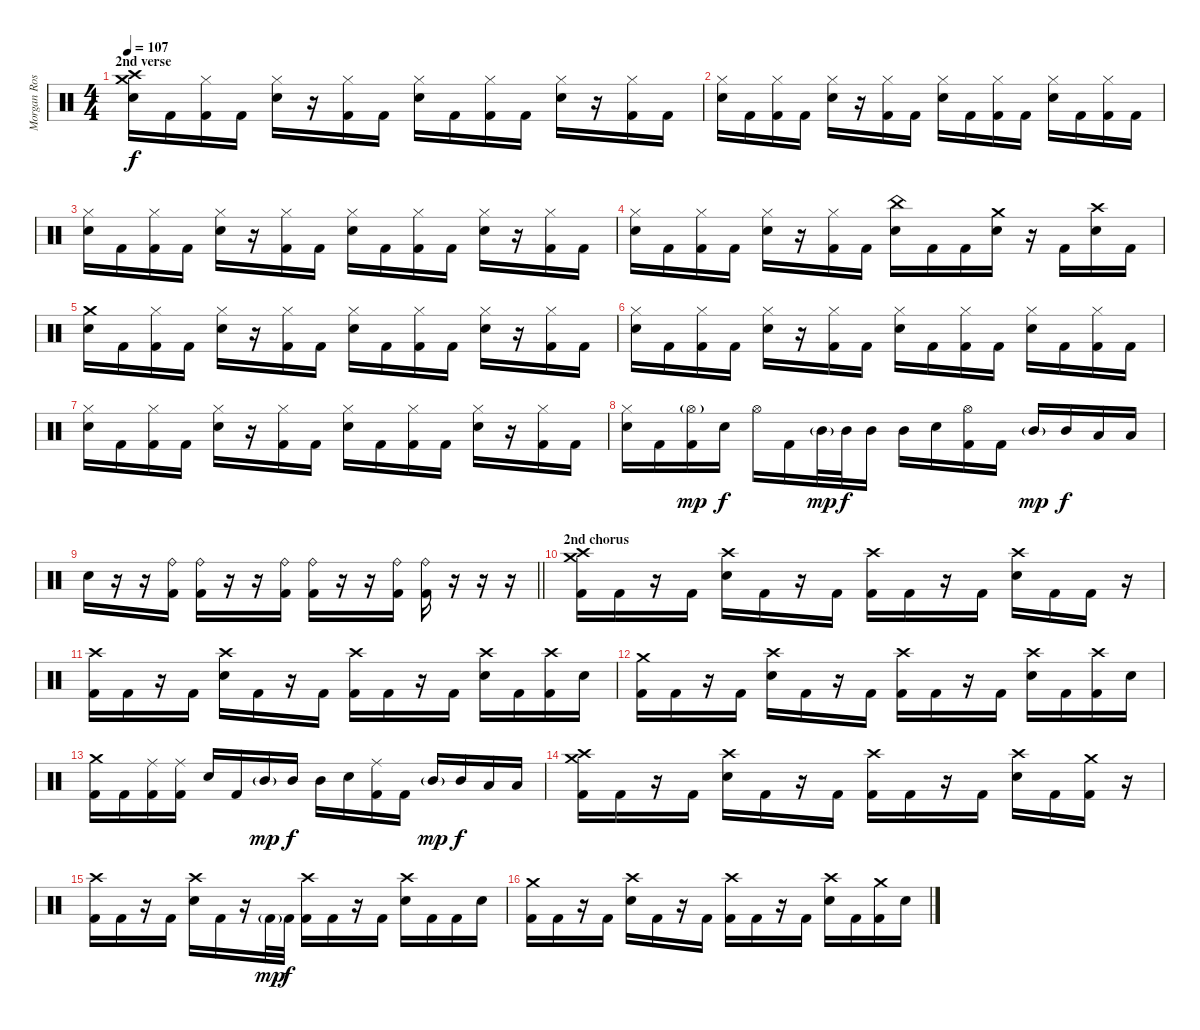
\track ("Morgan Rose" "Morgan Ros") {instrument percussion}
\staff {score}
\articulation defaults
\ts (4 4)
\section ("" "2nd verse")
\tempo 107
\clef neutral
\ks c
("Crash medium (hit)" "Crash high (hit)" "Snare (hit) 2").16{dy f} "Kick (hit) 2".16 ("Hi-Hat (closed)" "Kick (hit) 2").16 "Kick (hit) 2".16 ("Hi-Hat (closed)" "Snare (hit) 2").16 r.16 ("Hi-Hat (closed)" "Kick (hit) 2").16 "Kick (hit) 2".16 ("Hi-Hat (closed)" "Snare (hit) 2").16 "Kick (hit) 2".16 ("Hi-Hat (closed)" "Kick (hit) 2").16 "Kick (hit) 2".16 ("Hi-Hat (closed)" "Snare (hit) 2").16 r.16 ("Hi-Hat (closed)" "Kick (hit) 2").16 "Kick (hit) 2".16 |
("Hi-Hat (closed)" "Snare (hit) 2").16 "Kick (hit) 2".16 ("Hi-Hat (closed)" "Kick (hit) 2").16 "Kick (hit) 2".16 ("Hi-Hat (closed)" "Snare (hit) 2").16 r.16 ("Hi-Hat (closed)" "Kick (hit) 2").16 "Kick (hit) 2".16 ("Hi-Hat (closed)" "Snare (hit) 2").16 "Kick (hit) 2".16 ("Hi-Hat (closed)" "Kick (hit) 2").16 "Kick (hit) 2".16 ("Hi-Hat (closed)" "Snare (hit) 2").16 "Kick (hit) 2".16 ("Hi-Hat (closed)" "Kick (hit) 2").16 "Kick (hit) 2".16 |
("Hi-Hat (closed)" "Snare (hit) 2").16 "Kick (hit) 2".16 ("Hi-Hat (closed)" "Kick (hit) 2").16 "Kick (hit) 2".16 ("Hi-Hat (closed)" "Snare (hit) 2").16 r.16 ("Hi-Hat (closed)" "Kick (hit) 2").16 "Kick (hit) 2".16 ("Hi-Hat (closed)" "Snare (hit) 2").16 "Kick (hit) 2".16 ("Hi-Hat (closed)" "Kick (hit) 2").16 "Kick (hit) 2".16 ("Hi-Hat (closed)" "Snare (hit) 2").16 r.16 ("Hi-Hat (closed)" "Kick (hit) 2").16 "Kick (hit) 2".16 |
("Hi-Hat (closed)" "Snare (hit) 2").16 "Kick (hit) 2".16 ("Hi-Hat (closed)" "Kick (hit) 2").16 "Kick (hit) 2".16 ("Hi-Hat (closed)" "Snare (hit) 2").16 r.16 ("Hi-Hat (closed)" "Kick (hit) 2").16 "Kick (hit) 2".16 ("China (hit)" "Snare (hit) 2").16 "Kick (hit) 2".16 "Kick (hit) 2".16 ("Crash medium (hit)" "Snare (hit) 2").16 r.16 "Kick (hit) 2".16 ("Crash high (hit)" "Snare (hit) 2").16 "Kick (hit) 2".16 |
("Crash medium (hit)" "Snare (hit) 2").16 "Kick (hit) 2".16 ("Hi-Hat (closed)" "Kick (hit) 2").16 "Kick (hit) 2".16 ("Hi-Hat (closed)" "Snare (hit) 2").16 r.16 ("Hi-Hat (closed)" "Kick (hit) 2").16 "Kick (hit) 2".16 ("Hi-Hat (closed)" "Snare (hit) 2").16 "Kick (hit) 2".16 ("Hi-Hat (closed)" "Kick (hit) 2").16 "Kick (hit) 2".16 ("Hi-Hat (closed)" "Snare (hit) 2").16 r.16 ("Hi-Hat (closed)" "Kick (hit) 2").16 "Kick (hit) 2".16 |
("Hi-Hat (closed)" "Snare (hit) 2").16 "Kick (hit) 2".16 ("Hi-Hat (closed)" "Kick (hit) 2").16 "Kick (hit) 2".16 ("Hi-Hat (closed)" "Snare (hit) 2").16 r.16 ("Hi-Hat (closed)" "Kick (hit) 2").16 "Kick (hit) 2".16 ("Hi-Hat (closed)" "Snare (hit) 2").16 "Kick (hit) 2".16 ("Hi-Hat (closed)" "Kick (hit) 2").16 "Kick (hit) 2".16 ("Hi-Hat (closed)" "Snare (hit) 2").16 "Kick (hit) 2".16 ("Hi-Hat (closed)" "Kick (hit) 2").16 "Kick (hit) 2".16 |
("Hi-Hat (closed)" "Snare (hit) 2").16 "Kick (hit) 2".16 ("Hi-Hat (closed)" "Kick (hit) 2").16 "Kick (hit) 2".16 ("Hi-Hat (closed)" "Snare (hit) 2").16 r.16 ("Hi-Hat (closed)" "Kick (hit) 2").16 "Kick (hit) 2".16 ("Hi-Hat (closed)" "Snare (hit) 2").16 "Kick (hit) 2".16 ("Hi-Hat (closed)" "Kick (hit) 2").16 "Kick (hit) 2".16 ("Hi-Hat (closed)" "Snare (hit) 2").16 r.16 ("Hi-Hat (closed)" "Kick (hit) 2").16 "Kick (hit) 2".16 |
("Hi-Hat (closed)" "Snare (hit) 2").16 "Kick (hit) 2".16 ("Hi-Hat (open)"{g} "Kick (hit) 2").16{dy mp} "Snare (hit) 2".16{dy f} "Hi-Hat (open)".16 "Kick (hit) 2".16 "Mid Tom (hit)"{g}.32{dy mp} "Mid Tom (hit)".32{dy f} "Mid Tom (hit)".16 "Mid Tom (hit)".16 "Snare (hit) 2".16 ("Hi-Hat (open)" "Kick (hit) 2").16 "Kick (hit) 2".16 "Mid Tom (hit)"{g}.16{dy mp} "Mid Tom (hit)".16{dy f} "Low Tom (hit)".16 "Low Tom (hit)".16 |
\barLineRight lightlight "Snare (hit) 2".16
r.16 r.16 ("Ride (bell)" "Kick (hit) 2").16 ("Ride (bell)" "Kick (hit) 2").16 r.16 r.16 ("Ride (bell)" "Kick (hit) 2").16 ("Ride (bell)" "Kick (hit) 2").16 r.16 r.16 ("Ride (bell)" "Kick (hit) 2").16 ("Ride (bell)" "Kick (hit) 2").16 r.16 r.16 r.16 |
\section ("" "2nd chorus")
("Crash medium (hit)" "Crash high (hit)" "Kick (hit) 2").16 "Kick (hit) 2".16 r.16 "Kick (hit) 2".16 ("Crash high (hit)" "Snare (hit) 2").16 "Kick (hit) 2".16 r.16 "Kick (hit) 2".16 ("Crash high (hit)" "Kick (hit) 2").16 "Kick (hit) 2".16 r.16 "Kick (hit) 2".16 ("Crash high (hit)" "Snare (hit) 2").16 "Kick (hit) 2".16 "Kick (hit) 2".16 r.16 |
("Crash high (hit)" "Kick (hit) 2").16 "Kick (hit) 2".16 r.16 "Kick (hit) 2".16 ("Crash high (hit)" "Snare (hit) 2").16 "Kick (hit) 2".16 r.16 "Kick (hit) 2".16 ("Crash high (hit)" "Kick (hit) 2").16 "Kick (hit) 2".16 r.16 "Kick (hit) 2".16 ("Crash high (hit)" "Snare (hit) 2").16 "Kick (hit) 2".16 ("Crash high (hit)" "Kick (hit) 2").16 "Snare (hit) 2".16 |
("Crash medium (hit)" "Kick (hit) 2").16 "Kick (hit) 2".16 r.16 "Kick (hit) 2".16 ("Crash high (hit)" "Snare (hit) 2").16 "Kick (hit) 2".16 r.16 "Kick (hit) 2".16 ("Crash high (hit)" "Kick (hit) 2").16 "Kick (hit) 2".16 r.16 "Kick (hit) 2".16 ("Crash high (hit)" "Snare (hit) 2").16 "Kick (hit) 2".16 ("Crash high (hit)" "Kick (hit) 2").16 "Snare (hit) 2".16 |
("Crash medium (hit)" "Kick (hit) 2").16 "Kick (hit) 2".16 ("Ride (middle)" "Kick (hit) 2").16 ("Ride (middle)" "Kick (hit) 2").16 "Snare (hit) 2".16 "Kick (hit) 2".16 "Mid Tom (hit)"{g}.16{dy mp} "Mid Tom (hit)".16{dy f} "Mid Tom (hit)".16 "Snare (hit) 2".16 ("Ride (middle)" "Kick (hit) 2").16 "Kick (hit) 2".16 "Mid Tom (hit)"{g}.16{dy mp} "Mid Tom (hit)".16{dy f} "Low Tom (hit)".16 "Low Tom (hit)".16 |
("Crash medium (hit)" "Crash high (hit)" "Kick (hit) 2").16 "Kick (hit) 2".16 r.16 "Kick (hit) 2".16 ("Crash high (hit)" "Snare (hit) 2").16 "Kick (hit) 2".16 r.16 "Kick (hit) 2".16 ("Crash high (hit)" "Kick (hit) 2").16 "Kick (hit) 2".16 r.16 "Kick (hit) 2".16 ("Crash high (hit)" "Snare (hit) 2").16 "Kick (hit) 2".16 ("Crash medium (hit)" "Kick (hit) 2").16 r.16 |
("Crash high (hit)" "Kick (hit) 2").16 "Kick (hit) 2".16 r.16 "Kick (hit) 2".16 ("Crash high (hit)" "Snare (hit) 2").16 "Kick (hit) 2".16 r.16 "Kick (hit) 2"{g}.32{dy mp} "Kick (hit) 2".32{dy f} ("Crash high (hit)" "Kick (hit) 2").16 "Kick (hit) 2".16 r.16 "Kick (hit) 2".16 ("Crash high (hit)" "Snare (hit) 2").16 "Kick (hit) 2".16 "Kick (hit) 2".16 "Snare (hit) 2".16 |
("Crash medium (hit)" "Kick (hit) 2").16 "Kick (hit) 2".16 r.16 "Kick (hit) 2".16 ("Crash high (hit)" "Snare (hit) 2").16 "Kick (hit) 2".16 r.16 "Kick (hit) 2".16 ("Crash high (hit)" "Kick (hit) 2").16 "Kick (hit) 2".16 r.16 "Kick (hit) 2".16 ("Crash high (hit)" "Snare (hit) 2").16 "Kick (hit) 2".16 ("Crash medium (hit)" "Kick (hit) 2").16 "Snare (hit) 2".16
